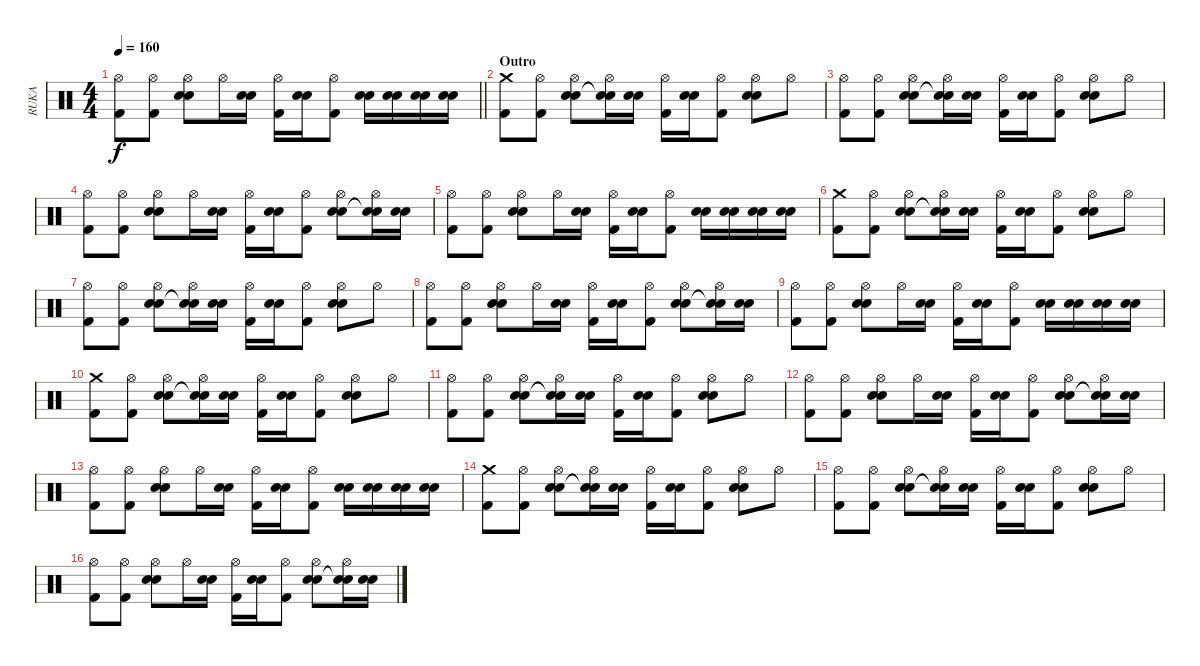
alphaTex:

\track ("RUKA" "RUKA") {instrument percussion}
\staff {score}
\articulation defaults
\ts (4 4)
\tempo 160
\clef neutral
\barLineRight lightlight
\ks c
("Hi-Hat (open)" "Kick (hit) 2").8{dy f} ("Hi-Hat (open)" "Kick (hit) 2").8 ("Hi-Hat (open)" "Snare (hit) 2" "Electric Snare (hit)").8 "Hi-Hat (open)".16 ("Snare (hit) 2" "Electric Snare (hit)").16 ("Hi-Hat (open)" "Kick (hit) 2").16 ("Snare (hit) 2" "Electric Snare (hit)").16 ("Hi-Hat (open)" "Kick (hit) 2").8 ("Snare (hit) 2" "Electric Snare (hit)").16 ("Snare (hit) 2" "Electric Snare (hit)").16 ("Snare (hit) 2" "Electric Snare (hit)").16 ("Snare (hit) 2" "Electric Snare (hit)").16 |
\section ("" "Outro")
("Crash medium (hit)" "Kick (hit) 2").8 ("Hi-Hat (open)" "Kick (hit) 2").8 ("Hi-Hat (open)" "Snare (hit) 2" "Electric Snare (hit)").8 ("Hi-Hat (open)" "Snare (hit)"{t} "Snare (hit)"{t}).16 ("Snare (hit) 2" "Electric Snare (hit)").16 ("Hi-Hat (open)" "Kick (hit) 2").16 ("Snare (hit) 2" "Electric Snare (hit)").16 ("Hi-Hat (open)" "Kick (hit) 2").8 ("Hi-Hat (open)" "Snare (hit) 2" "Electric Snare (hit)").8 "Hi-Hat (open)".8 |
("Hi-Hat (open)" "Kick (hit) 2").8 ("Hi-Hat (open)" "Kick (hit) 2").8 ("Hi-Hat (open)" "Snare (hit) 2" "Electric Snare (hit)").8 ("Hi-Hat (open)" "Snare (hit)"{t} "Snare (hit)"{t}).16 ("Snare (hit) 2" "Electric Snare (hit)").16 ("Hi-Hat (open)" "Kick (hit) 2").16 ("Snare (hit) 2" "Electric Snare (hit)").16 ("Hi-Hat (open)" "Kick (hit) 2").8 ("Hi-Hat (open)" "Snare (hit) 2" "Electric Snare (hit)").8 "Hi-Hat (open)".8 |
("Hi-Hat (open)" "Kick (hit) 2").8 ("Hi-Hat (open)" "Kick (hit) 2").8 ("Hi-Hat (open)" "Snare (hit) 2" "Electric Snare (hit)").8 "Hi-Hat (open)".16 ("Snare (hit) 2" "Electric Snare (hit)").16 ("Hi-Hat (open)" "Kick (hit) 2").16 ("Snare (hit) 2" "Electric Snare (hit)").16 ("Hi-Hat (open)" "Kick (hit) 2").8 ("Hi-Hat (open)" "Snare (hit) 2" "Electric Snare (hit)").8 ("Hi-Hat (open)" "Snare (hit)"{t} "Snare (hit)"{t}).16 ("Snare (hit) 2" "Electric Snare (hit)").16 |
("Hi-Hat (open)" "Kick (hit) 2").8 ("Hi-Hat (open)" "Kick (hit) 2").8 ("Hi-Hat (open)" "Snare (hit) 2" "Electric Snare (hit)").8 "Hi-Hat (open)".16 ("Snare (hit) 2" "Electric Snare (hit)").16 ("Hi-Hat (open)" "Kick (hit) 2").16 ("Snare (hit) 2" "Electric Snare (hit)").16 ("Hi-Hat (open)" "Kick (hit) 2").8 ("Snare (hit) 2" "Electric Snare (hit)").16 ("Snare (hit) 2" "Electric Snare (hit)").16 ("Snare (hit) 2" "Electric Snare (hit)").16 ("Snare (hit) 2" "Electric Snare (hit)").16 |
("Crash medium (hit)" "Kick (hit) 2").8 ("Hi-Hat (open)" "Kick (hit) 2").8 ("Hi-Hat (open)" "Snare (hit) 2" "Electric Snare (hit)").8 ("Hi-Hat (open)" "Snare (hit)"{t} "Snare (hit)"{t}).16 ("Snare (hit) 2" "Electric Snare (hit)").16 ("Hi-Hat (open)" "Kick (hit) 2").16 ("Snare (hit) 2" "Electric Snare (hit)").16 ("Hi-Hat (open)" "Kick (hit) 2").8 ("Hi-Hat (open)" "Snare (hit) 2" "Electric Snare (hit)").8 "Hi-Hat (open)".8 |
("Hi-Hat (open)" "Kick (hit) 2").8 ("Hi-Hat (open)" "Kick (hit) 2").8 ("Hi-Hat (open)" "Snare (hit) 2" "Electric Snare (hit)").8 ("Hi-Hat (open)" "Snare (hit)"{t} "Snare (hit)"{t}).16 ("Snare (hit) 2" "Electric Snare (hit)").16 ("Hi-Hat (open)" "Kick (hit) 2").16 ("Snare (hit) 2" "Electric Snare (hit)").16 ("Hi-Hat (open)" "Kick (hit) 2").8 ("Hi-Hat (open)" "Snare (hit) 2" "Electric Snare (hit)").8 "Hi-Hat (open)".8 |
("Hi-Hat (open)" "Kick (hit) 2").8 ("Hi-Hat (open)" "Kick (hit) 2").8 ("Hi-Hat (open)" "Snare (hit) 2" "Electric Snare (hit)").8 "Hi-Hat (open)".16 ("Snare (hit) 2" "Electric Snare (hit)").16 ("Hi-Hat (open)" "Kick (hit) 2").16 ("Snare (hit) 2" "Electric Snare (hit)").16 ("Hi-Hat (open)" "Kick (hit) 2").8 ("Hi-Hat (open)" "Snare (hit) 2" "Electric Snare (hit)").8 ("Hi-Hat (open)" "Snare (hit)"{t} "Snare (hit)"{t}).16 ("Snare (hit) 2" "Electric Snare (hit)").16 |
("Hi-Hat (open)" "Kick (hit) 2").8 ("Hi-Hat (open)" "Kick (hit) 2").8 ("Hi-Hat (open)" "Snare (hit) 2" "Electric Snare (hit)").8 "Hi-Hat (open)".16 ("Snare (hit) 2" "Electric Snare (hit)").16 ("Hi-Hat (open)" "Kick (hit) 2").16 ("Snare (hit) 2" "Electric Snare (hit)").16 ("Hi-Hat (open)" "Kick (hit) 2").8 ("Snare (hit) 2" "Electric Snare (hit)").16 ("Snare (hit) 2" "Electric Snare (hit)").16 ("Snare (hit) 2" "Electric Snare (hit)").16 ("Snare (hit) 2" "Electric Snare (hit)").16 |
("Crash medium (hit)" "Kick (hit) 2").8 ("Hi-Hat (open)" "Kick (hit) 2").8 ("Hi-Hat (open)" "Snare (hit) 2" "Electric Snare (hit)").8 ("Hi-Hat (open)" "Snare (hit)"{t} "Snare (hit)"{t}).16 ("Snare (hit) 2" "Electric Snare (hit)").16 ("Hi-Hat (open)" "Kick (hit) 2").16 ("Snare (hit) 2" "Electric Snare (hit)").16 ("Hi-Hat (open)" "Kick (hit) 2").8 ("Hi-Hat (open)" "Snare (hit) 2" "Electric Snare (hit)").8 "Hi-Hat (open)".8 |
("Hi-Hat (open)" "Kick (hit) 2").8 ("Hi-Hat (open)" "Kick (hit) 2").8 ("Hi-Hat (open)" "Snare (hit) 2" "Electric Snare (hit)").8 ("Hi-Hat (open)" "Snare (hit)"{t} "Snare (hit)"{t}).16 ("Snare (hit) 2" "Electric Snare (hit)").16 ("Hi-Hat (open)" "Kick (hit) 2").16 ("Snare (hit) 2" "Electric Snare (hit)").16 ("Hi-Hat (open)" "Kick (hit) 2").8 ("Hi-Hat (open)" "Snare (hit) 2" "Electric Snare (hit)").8 "Hi-Hat (open)".8 |
("Hi-Hat (open)" "Kick (hit) 2").8 ("Hi-Hat (open)" "Kick (hit) 2").8 ("Hi-Hat (open)" "Snare (hit) 2" "Electric Snare (hit)").8 "Hi-Hat (open)".16 ("Snare (hit) 2" "Electric Snare (hit)").16 ("Hi-Hat (open)" "Kick (hit) 2").16 ("Snare (hit) 2" "Electric Snare (hit)").16 ("Hi-Hat (open)" "Kick (hit) 2").8 ("Hi-Hat (open)" "Snare (hit) 2" "Electric Snare (hit)").8 ("Hi-Hat (open)" "Snare (hit)"{t} "Snare (hit)"{t}).16 ("Snare (hit) 2" "Electric Snare (hit)").16 |
("Hi-Hat (open)" "Kick (hit) 2").8 ("Hi-Hat (open)" "Kick (hit) 2").8 ("Hi-Hat (open)" "Snare (hit) 2" "Electric Snare (hit)").8 "Hi-Hat (open)".16 ("Snare (hit) 2" "Electric Snare (hit)").16 ("Hi-Hat (open)" "Kick (hit) 2").16 ("Snare (hit) 2" "Electric Snare (hit)").16 ("Hi-Hat (open)" "Kick (hit) 2").8 ("Snare (hit) 2" "Electric Snare (hit)").16 ("Snare (hit) 2" "Electric Snare (hit)").16 ("Snare (hit) 2" "Electric Snare (hit)").16 ("Snare (hit) 2" "Electric Snare (hit)").16 |
("Crash medium (hit)" "Kick (hit) 2").8 ("Hi-Hat (open)" "Kick (hit) 2").8 ("Hi-Hat (open)" "Snare (hit) 2" "Electric Snare (hit)").8 ("Hi-Hat (open)" "Snare (hit)"{t} "Snare (hit)"{t}).16 ("Snare (hit) 2" "Electric Snare (hit)").16 ("Hi-Hat (open)" "Kick (hit) 2").16 ("Snare (hit) 2" "Electric Snare (hit)").16 ("Hi-Hat (open)" "Kick (hit) 2").8 ("Hi-Hat (open)" "Snare (hit) 2" "Electric Snare (hit)").8 "Hi-Hat (open)".8 |
("Hi-Hat (open)" "Kick (hit) 2").8 ("Hi-Hat (open)" "Kick (hit) 2").8 ("Hi-Hat (open)" "Snare (hit) 2" "Electric Snare (hit)").8 ("Hi-Hat (open)" "Snare (hit)"{t} "Snare (hit)"{t}).16 ("Snare (hit) 2" "Electric Snare (hit)").16 ("Hi-Hat (open)" "Kick (hit) 2").16 ("Snare (hit) 2" "Electric Snare (hit)").16 ("Hi-Hat (open)" "Kick (hit) 2").8 ("Hi-Hat (open)" "Snare (hit) 2" "Electric Snare (hit)").8 "Hi-Hat (open)".8 |
("Hi-Hat (open)" "Kick (hit) 2").8 ("Hi-Hat (open)" "Kick (hit) 2").8 ("Hi-Hat (open)" "Snare (hit) 2" "Electric Snare (hit)").8 "Hi-Hat (open)".16 ("Snare (hit) 2" "Electric Snare (hit)").16 ("Hi-Hat (open)" "Kick (hit) 2").16 ("Snare (hit) 2" "Electric Snare (hit)").16 ("Hi-Hat (open)" "Kick (hit) 2").8 ("Hi-Hat (open)" "Snare (hit) 2" "Electric Snare (hit)").8 ("Hi-Hat (open)" "Snare (hit)"{t} "Snare (hit)"{t}).16 ("Snare (hit) 2" "Electric Snare (hit)").16
